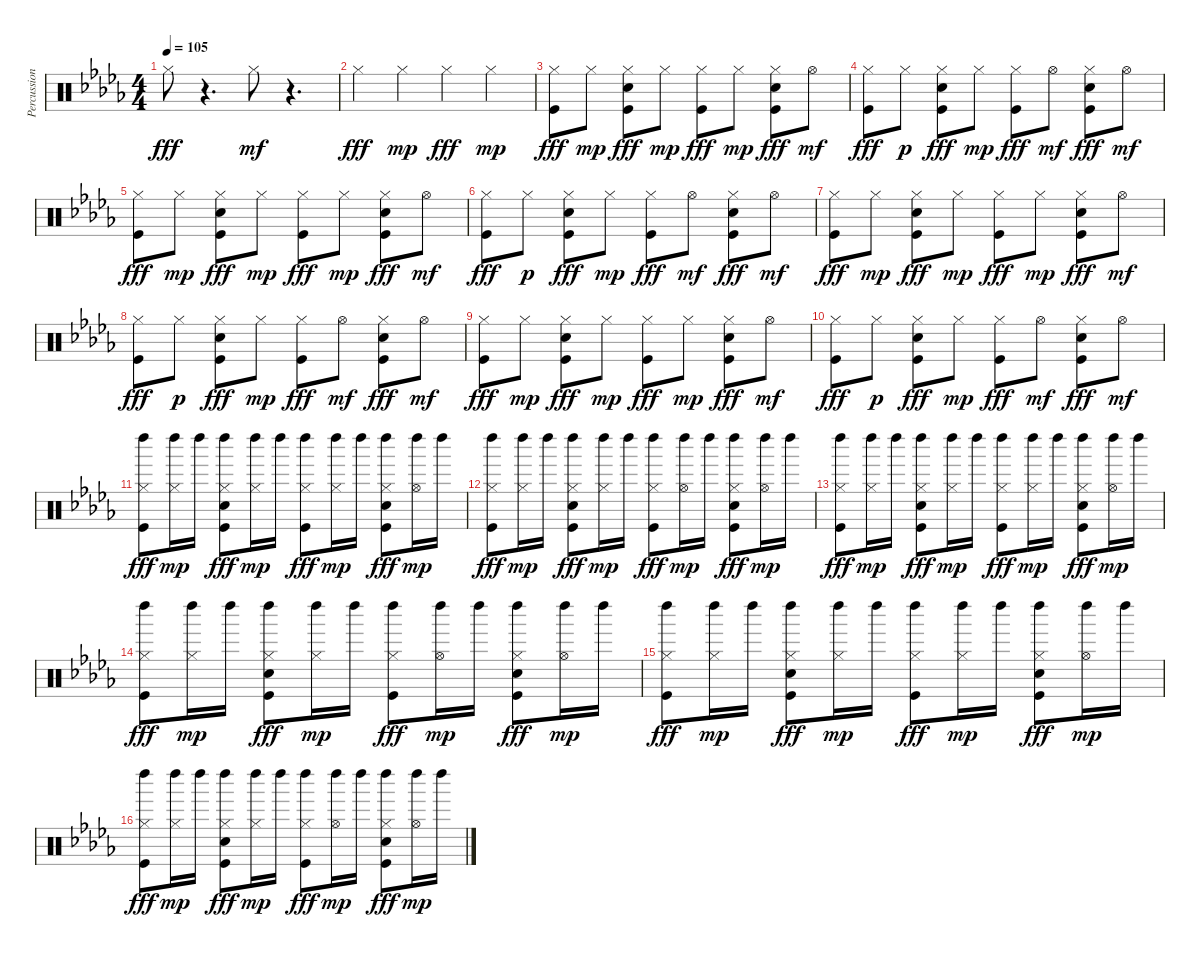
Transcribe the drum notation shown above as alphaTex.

\track ("Percussion" "Percussion") {instrument percussion}
\staff {score}
\articulation defaults
\ts (4 4)
\tempo 105
\clef neutral
\ks db "Hi-Hat (closed)".8{dy fff}
r.4{d} "Hi-Hat (closed)".8{dy mf} r.4{d} |
"Hi-Hat (closed)".4{dy fff} "Hi-Hat (closed)".4{dy mp} "Hi-Hat (closed)".4{dy fff} "Hi-Hat (closed)".4{dy mp} |
("Hi-Hat (closed)" "Kick (hit)").8{dy fff} "Hi-Hat (closed)".8{dy mp} ("Hi-Hat (closed)" "Snare (hit) 2" "Kick (hit)").8{dy fff} "Hi-Hat (closed)".8{dy mp} ("Hi-Hat (closed)" "Kick (hit)").8{dy fff} "Hi-Hat (closed)".8{dy mp} ("Hi-Hat (closed)" "Snare (hit) 2" "Kick (hit)").8{dy fff} "Hi-Hat (open)".8{dy mf} |
("Hi-Hat (closed)" "Kick (hit)").8{dy fff} "Hi-Hat (closed)".8{dy p} ("Hi-Hat (closed)" "Snare (hit) 2" "Kick (hit)").8{dy fff} "Hi-Hat (closed)".8{dy mp} ("Hi-Hat (closed)" "Kick (hit)").8{dy fff} "Hi-Hat (open)".8{dy mf} ("Hi-Hat (closed)" "Snare (hit) 2" "Kick (hit)").8{dy fff} "Hi-Hat (open)".8{dy mf} |
("Hi-Hat (closed)" "Kick (hit)").8{dy fff} "Hi-Hat (closed)".8{dy mp} ("Hi-Hat (closed)" "Snare (hit) 2" "Kick (hit)").8{dy fff} "Hi-Hat (closed)".8{dy mp} ("Hi-Hat (closed)" "Kick (hit)").8{dy fff} "Hi-Hat (closed)".8{dy mp} ("Hi-Hat (closed)" "Snare (hit) 2" "Kick (hit)").8{dy fff} "Hi-Hat (open)".8{dy mf} |
("Hi-Hat (closed)" "Kick (hit)").8{dy fff} "Hi-Hat (closed)".8{dy p} ("Hi-Hat (closed)" "Snare (hit) 2" "Kick (hit)").8{dy fff} "Hi-Hat (closed)".8{dy mp} ("Hi-Hat (closed)" "Kick (hit)").8{dy fff} "Hi-Hat (open)".8{dy mf} ("Hi-Hat (closed)" "Snare (hit) 2" "Kick (hit)").8{dy fff} "Hi-Hat (open)".8{dy mf} |
("Hi-Hat (closed)" "Kick (hit)").8{dy fff} "Hi-Hat (closed)".8{dy mp} ("Hi-Hat (closed)" "Snare (hit) 2" "Kick (hit)").8{dy fff} "Hi-Hat (closed)".8{dy mp} ("Hi-Hat (closed)" "Kick (hit)").8{dy fff} "Hi-Hat (closed)".8{dy mp} ("Hi-Hat (closed)" "Snare (hit) 2" "Kick (hit)").8{dy fff} "Hi-Hat (open)".8{dy mf} |
("Hi-Hat (closed)" "Kick (hit)").8{dy fff} "Hi-Hat (closed)".8{dy p} ("Hi-Hat (closed)" "Snare (hit) 2" "Kick (hit)").8{dy fff} "Hi-Hat (closed)".8{dy mp} ("Hi-Hat (closed)" "Kick (hit)").8{dy fff} "Hi-Hat (open)".8{dy mf} ("Hi-Hat (closed)" "Snare (hit) 2" "Kick (hit)").8{dy fff} "Hi-Hat (open)".8{dy mf} |
("Hi-Hat (closed)" "Kick (hit)").8{dy fff} "Hi-Hat (closed)".8{dy mp} ("Hi-Hat (closed)" "Snare (hit) 2" "Kick (hit)").8{dy fff} "Hi-Hat (closed)".8{dy mp} ("Hi-Hat (closed)" "Kick (hit)").8{dy fff} "Hi-Hat (closed)".8{dy mp} ("Hi-Hat (closed)" "Snare (hit) 2" "Kick (hit)").8{dy fff} "Hi-Hat (open)".8{dy mf} |
("Hi-Hat (closed)" "Kick (hit)").8{dy fff} "Hi-Hat (closed)".8{dy p} ("Hi-Hat (closed)" "Snare (hit) 2" "Kick (hit)").8{dy fff} "Hi-Hat (closed)".8{dy mp} ("Hi-Hat (closed)" "Kick (hit)").8{dy fff} "Hi-Hat (open)".8{dy mf} ("Hi-Hat (closed)" "Snare (hit) 2" "Kick (hit)").8{dy fff} "Hi-Hat (open)".8{dy mf} |
("Hi-Hat (closed)" "Left Maraca (hit)" "Kick (hit)").8{dy fff} ("Hi-Hat (closed)" "Left Maraca (hit)").16{dy mp} "Left Maraca (hit)".16 ("Hi-Hat (closed)" "Left Maraca (hit)" "Snare (hit) 2" "Kick (hit)").8{dy fff} ("Hi-Hat (closed)" "Left Maraca (hit)").16{dy mp} "Left Maraca (hit)".16 ("Hi-Hat (closed)" "Left Maraca (hit)" "Kick (hit)").8{dy fff} ("Hi-Hat (closed)" "Left Maraca (hit)").16{dy mp} "Left Maraca (hit)".16 ("Hi-Hat (closed)" "Left Maraca (hit)" "Snare (hit) 2" "Kick (hit)").8{dy fff} ("Hi-Hat (open)" "Left Maraca (hit)").16{dy mp} "Left Maraca (hit)".16 |
("Hi-Hat (closed)" "Left Maraca (hit)" "Kick (hit)").8{dy fff} ("Hi-Hat (closed)" "Left Maraca (hit)").16{dy mp} "Left Maraca (hit)".16 ("Hi-Hat (closed)" "Left Maraca (hit)" "Snare (hit) 2" "Kick (hit)").8{dy fff} ("Hi-Hat (closed)" "Left Maraca (hit)").16{dy mp} "Left Maraca (hit)".16 ("Hi-Hat (closed)" "Left Maraca (hit)" "Kick (hit)").8{dy fff} ("Hi-Hat (open)" "Left Maraca (hit)").16{dy mp} "Left Maraca (hit)".16 ("Hi-Hat (closed)" "Left Maraca (hit)" "Snare (hit) 2" "Kick (hit)").8{dy fff} ("Hi-Hat (open)" "Left Maraca (hit)").16{dy mp} "Left Maraca (hit)".16 |
("Hi-Hat (closed)" "Left Maraca (hit)" "Kick (hit)").8{dy fff} ("Hi-Hat (closed)" "Left Maraca (hit)").16{dy mp} "Left Maraca (hit)".16 ("Hi-Hat (closed)" "Left Maraca (hit)" "Snare (hit) 2" "Kick (hit)").8{dy fff} ("Hi-Hat (closed)" "Left Maraca (hit)").16{dy mp} "Left Maraca (hit)".16 ("Hi-Hat (closed)" "Left Maraca (hit)" "Kick (hit)").8{dy fff} ("Hi-Hat (closed)" "Left Maraca (hit)").16{dy mp} "Left Maraca (hit)".16 ("Hi-Hat (closed)" "Left Maraca (hit)" "Snare (hit) 2" "Kick (hit)").8{dy fff} ("Hi-Hat (open)" "Left Maraca (hit)").16{dy mp} "Left Maraca (hit)".16 |
("Hi-Hat (closed)" "Left Maraca (hit)" "Kick (hit)").8{dy fff} ("Hi-Hat (closed)" "Left Maraca (hit)").16{dy mp} "Left Maraca (hit)".16 ("Hi-Hat (closed)" "Left Maraca (hit)" "Snare (hit) 2" "Kick (hit)").8{dy fff} ("Hi-Hat (closed)" "Left Maraca (hit)").16{dy mp} "Left Maraca (hit)".16 ("Hi-Hat (closed)" "Left Maraca (hit)" "Kick (hit)").8{dy fff} ("Hi-Hat (open)" "Left Maraca (hit)").16{dy mp} "Left Maraca (hit)".16 ("Hi-Hat (closed)" "Left Maraca (hit)" "Snare (hit) 2" "Kick (hit)").8{dy fff} ("Hi-Hat (open)" "Left Maraca (hit)").16{dy mp} "Left Maraca (hit)".16 |
("Hi-Hat (closed)" "Left Maraca (hit)" "Kick (hit)").8{dy fff} ("Hi-Hat (closed)" "Left Maraca (hit)").16{dy mp} "Left Maraca (hit)".16 ("Hi-Hat (closed)" "Left Maraca (hit)" "Snare (hit) 2" "Kick (hit)").8{dy fff} ("Hi-Hat (closed)" "Left Maraca (hit)").16{dy mp} "Left Maraca (hit)".16 ("Hi-Hat (closed)" "Left Maraca (hit)" "Kick (hit)").8{dy fff} ("Hi-Hat (closed)" "Left Maraca (hit)").16{dy mp} "Left Maraca (hit)".16 ("Hi-Hat (closed)" "Left Maraca (hit)" "Snare (hit) 2" "Kick (hit)").8{dy fff} ("Hi-Hat (open)" "Left Maraca (hit)").16{dy mp} "Left Maraca (hit)".16 |
("Hi-Hat (closed)" "Left Maraca (hit)" "Kick (hit)").8{dy fff} ("Hi-Hat (closed)" "Left Maraca (hit)").16{dy mp} "Left Maraca (hit)".16 ("Hi-Hat (closed)" "Left Maraca (hit)" "Snare (hit) 2" "Kick (hit)").8{dy fff} ("Hi-Hat (closed)" "Left Maraca (hit)").16{dy mp} "Left Maraca (hit)".16 ("Hi-Hat (closed)" "Left Maraca (hit)" "Kick (hit)").8{dy fff} ("Hi-Hat (open)" "Left Maraca (hit)").16{dy mp} "Left Maraca (hit)".16 ("Hi-Hat (closed)" "Left Maraca (hit)" "Snare (hit) 2" "Kick (hit)").8{dy fff} ("Hi-Hat (open)" "Left Maraca (hit)").16{dy mp} "Left Maraca (hit)".16
